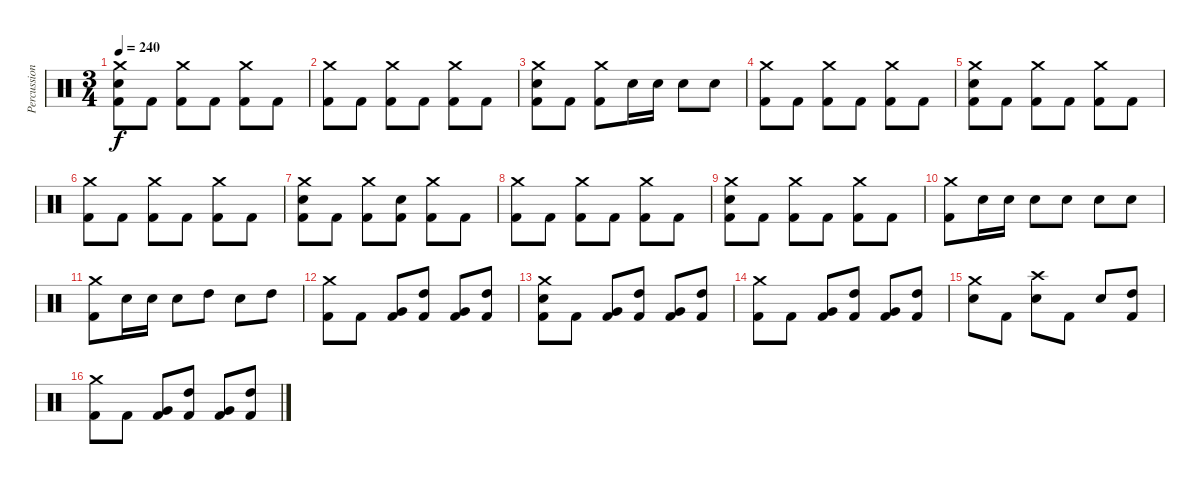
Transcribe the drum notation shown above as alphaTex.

\track ("Percussion" "Percussion") {instrument percussion}
\staff {score}
\articulation defaults
\ts (3 4)
\tempo 240
\clef neutral
\ks c
("Crash medium (hit)" "Electric Snare (hit)" "Kick (hit) 2").8{dy f} "Kick (hit) 2".8 ("Crash medium (hit)" "Kick (hit) 2").8 "Kick (hit) 2".8 ("Crash medium (hit)" "Kick (hit) 2").8 "Kick (hit) 2".8 |
("Crash medium (hit)" "Kick (hit) 2").8 "Kick (hit) 2".8 ("Crash medium (hit)" "Kick (hit) 2").8 "Kick (hit) 2".8 ("Crash medium (hit)" "Kick (hit) 2").8 "Kick (hit) 2".8 |
("Crash medium (hit)" "Electric Snare (hit)" "Kick (hit) 2").8 "Kick (hit) 2".8 ("Crash medium (hit)" "Kick (hit) 2").8 "Electric Snare (hit)".16 "Electric Snare (hit)".16 "Electric Snare (hit)".8 "Electric Snare (hit)".8 |
("Crash medium (hit)" "Kick (hit) 2").8 "Kick (hit) 2".8 ("Crash medium (hit)" "Kick (hit) 2").8 "Kick (hit) 2".8 ("Crash medium (hit)" "Kick (hit) 2").8 "Kick (hit) 2".8 |
("Crash medium (hit)" "Electric Snare (hit)" "Kick (hit) 2").8 "Kick (hit) 2".8 ("Crash medium (hit)" "Kick (hit) 2").8 "Kick (hit) 2".8 ("Crash medium (hit)" "Kick (hit) 2").8 "Kick (hit) 2".8 |
("Crash medium (hit)" "Kick (hit) 2").8 "Kick (hit) 2".8 ("Crash medium (hit)" "Kick (hit) 2").8 "Kick (hit) 2".8 ("Crash medium (hit)" "Kick (hit) 2").8 "Kick (hit) 2".8 |
("Crash medium (hit)" "Electric Snare (hit)" "Kick (hit) 2").8 "Kick (hit) 2".8 ("Crash medium (hit)" "Kick (hit) 2").8 ("Electric Snare (hit)" "Kick (hit) 2").8 ("Crash medium (hit)" "Kick (hit) 2").8 "Kick (hit) 2".8 |
("Crash medium (hit)" "Kick (hit) 2").8 "Kick (hit) 2".8 ("Crash medium (hit)" "Kick (hit) 2").8 "Kick (hit) 2".8 ("Crash medium (hit)" "Kick (hit) 2").8 "Kick (hit) 2".8 |
("Crash medium (hit)" "Electric Snare (hit)" "Kick (hit) 2").8 "Kick (hit) 2".8 ("Crash medium (hit)" "Kick (hit) 2").8 "Kick (hit) 2".8 ("Crash medium (hit)" "Kick (hit) 2").8 "Kick (hit) 2".8 |
("Crash medium (hit)" "Kick (hit) 2").8 "Electric Snare (hit)".16 "Electric Snare (hit)".16 "Electric Snare (hit)".8 "Electric Snare (hit)".8 "Electric Snare (hit)".8 "Electric Snare (hit)".8 |
("Crash medium (hit)" "Kick (hit) 2").8 "Electric Snare (hit)".16 "Electric Snare (hit)".16 "Electric Snare (hit)".8 "High Tom (hit)".8 "Electric Snare (hit)".8 "High Tom (hit)".8 |
("Crash medium (hit)" "Kick (hit) 2").8 "Kick (hit) 2".8 ("Very Low Tom (hit)" "Kick (hit) 2").8 ("High Tom (hit)" "Kick (hit) 2").8 ("Very Low Tom (hit)" "Kick (hit) 2").8 ("High Tom (hit)" "Kick (hit) 2").8 |
("Crash medium (hit)" "Electric Snare (hit)" "Kick (hit) 2").8 "Kick (hit) 2".8 ("Very Low Tom (hit)" "Kick (hit) 2").8 ("High Tom (hit)" "Kick (hit) 2").8 ("Very Low Tom (hit)" "Kick (hit) 2").8 ("High Tom (hit)" "Kick (hit) 2").8 |
("Crash medium (hit)" "Kick (hit) 2").8 "Kick (hit) 2".8 ("Very Low Tom (hit)" "Kick (hit) 2").8 ("High Tom (hit)" "Kick (hit) 2").8 ("Very Low Tom (hit)" "Kick (hit) 2").8 ("High Tom (hit)" "Kick (hit) 2").8 |
("Crash medium (hit)" "Electric Snare (hit)").8 "Kick (hit) 2".8 ("Crash high (hit)" "Electric Snare (hit)").8 "Kick (hit) 2".8 "Electric Snare (hit)".8 ("High Tom (hit)" "Kick (hit) 2").8 |
("Crash medium (hit)" "Kick (hit) 2").8 "Kick (hit) 2".8 ("Very Low Tom (hit)" "Kick (hit) 2").8 ("High Tom (hit)" "Kick (hit) 2").8 ("Very Low Tom (hit)" "Kick (hit) 2").8 ("High Tom (hit)" "Kick (hit) 2").8
